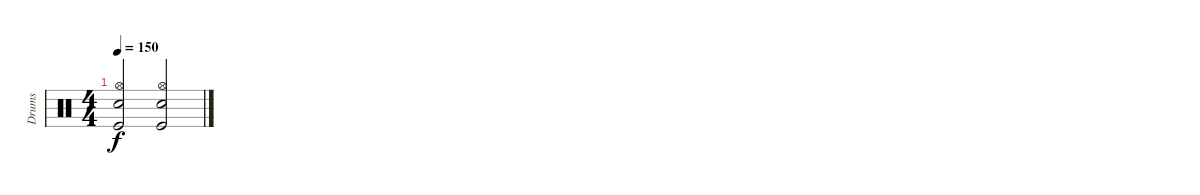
\track ("Drums" "Drums") {instrument percussion}
\staff {score}
\articulation defaults
\ts (4 4)
\tempo 150
\clef neutral
\ks c
("Kick (hit)" "Hi-Hat (open)" "Snare (hit) 2").2{dy f} ("Kick (hit)" "Hi-Hat (open)" "Snare (hit) 2").2
